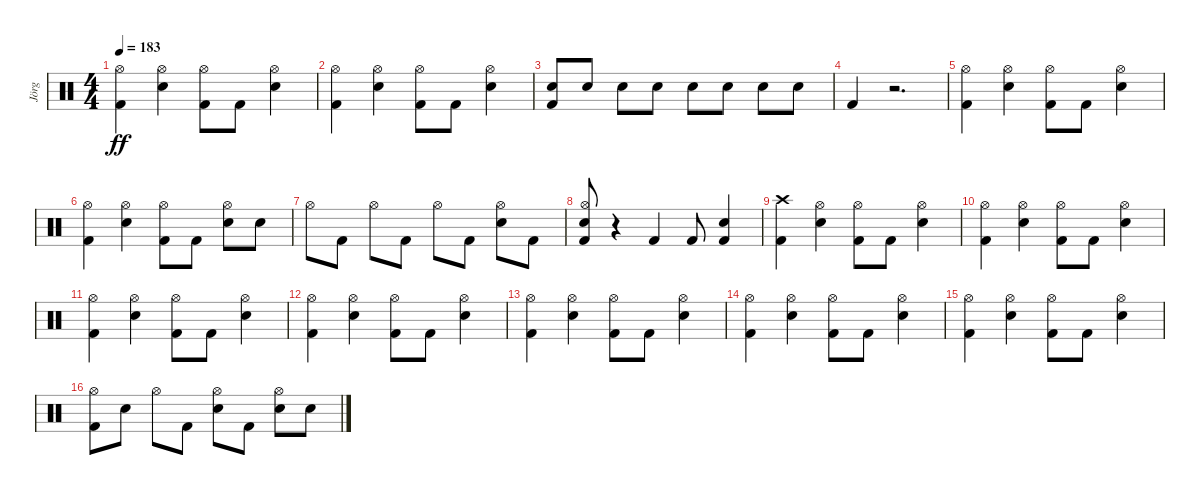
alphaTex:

\track ("Jörg" "Jörg") {instrument percussion}
\staff {score}
\articulation defaults
\ts (4 4)
\tempo 183
\clef neutral
\ks c
("Kick (hit) 2" "Hi-Hat (open)").4{dy ff} ("Snare (hit) 2" "Hi-Hat (open)").4 ("Kick (hit) 2" "Hi-Hat (open)").8 "Kick (hit) 2".8 ("Snare (hit) 2" "Hi-Hat (open)").4 |
("Kick (hit) 2" "Hi-Hat (open)").4 ("Snare (hit) 2" "Hi-Hat (open)").4 ("Kick (hit) 2" "Hi-Hat (open)").8 "Kick (hit) 2".8 ("Snare (hit) 2" "Hi-Hat (open)").4 |
("Snare (hit) 2" "Kick (hit) 2").8 "Snare (hit) 2".8 "Snare (hit) 2".8 "Snare (hit) 2".8 "Snare (hit) 2".8 "Snare (hit) 2".8 "Snare (hit) 2".8 "Snare (hit) 2".8 |
"Kick (hit) 2".4 r.2{d} |
("Hi-Hat (open)" "Kick (hit) 2").4 ("Hi-Hat (open)" "Snare (hit) 2").4 ("Hi-Hat (open)" "Kick (hit) 2").8 "Kick (hit) 2".8 ("Hi-Hat (open)" "Snare (hit) 2").4 |
("Hi-Hat (open)" "Kick (hit) 2").4 ("Hi-Hat (open)" "Snare (hit) 2").4 ("Hi-Hat (open)" "Kick (hit) 2").8 "Kick (hit) 2".8 ("Hi-Hat (open)" "Snare (hit) 2").8 "Snare (hit) 2".8 |
"Hi-Hat (open)".8 "Kick (hit) 2".8 "Hi-Hat (open)".8 "Kick (hit) 2".8 "Hi-Hat (open)".8 "Kick (hit) 2".8 ("Snare (hit) 2" "Hi-Hat (open)").8 "Kick (hit) 2".8 |
("Kick (hit) 2" "Snare (hit) 2" "Hi-Hat (open)").8 r.4 "Kick (hit) 2".4 "Kick (hit) 2".8 ("Kick (hit) 2" "Snare (hit) 2").4 |
("Kick (hit) 2" "Crash high (hit)").4 ("Snare (hit) 2" "Hi-Hat (open)").4 ("Kick (hit) 2" "Hi-Hat (open)").8 "Kick (hit) 2".8 ("Snare (hit) 2" "Hi-Hat (open)").4 |
("Kick (hit) 2" "Hi-Hat (open)").4 ("Snare (hit) 2" "Hi-Hat (open)").4 ("Kick (hit) 2" "Hi-Hat (open)").8 "Kick (hit) 2".8 ("Snare (hit) 2" "Hi-Hat (open)").4 |
("Kick (hit) 2" "Hi-Hat (open)").4 ("Snare (hit) 2" "Hi-Hat (open)").4 ("Kick (hit) 2" "Hi-Hat (open)").8 "Kick (hit) 2".8 ("Snare (hit) 2" "Hi-Hat (open)").4 |
("Kick (hit) 2" "Hi-Hat (open)").4 ("Snare (hit) 2" "Hi-Hat (open)").4 ("Kick (hit) 2" "Hi-Hat (open)").8 "Kick (hit) 2".8 ("Snare (hit) 2" "Hi-Hat (open)").4 |
("Kick (hit) 2" "Hi-Hat (open)").4 ("Snare (hit) 2" "Hi-Hat (open)").4 ("Kick (hit) 2" "Hi-Hat (open)").8 "Kick (hit) 2".8 ("Snare (hit) 2" "Hi-Hat (open)").4 |
("Kick (hit) 2" "Hi-Hat (open)").4 ("Snare (hit) 2" "Hi-Hat (open)").4 ("Kick (hit) 2" "Hi-Hat (open)").8 "Kick (hit) 2".8 ("Snare (hit) 2" "Hi-Hat (open)").4 |
("Kick (hit) 2" "Hi-Hat (open)").4 ("Snare (hit) 2" "Hi-Hat (open)").4 ("Kick (hit) 2" "Hi-Hat (open)").8 "Kick (hit) 2".8 ("Snare (hit) 2" "Hi-Hat (open)").4 |
("Hi-Hat (open)" "Kick (hit) 2").8 "Snare (hit) 2".8 "Hi-Hat (open)".8 "Kick (hit) 2".8 ("Snare (hit) 2" "Hi-Hat (open)").8 "Kick (hit) 2".8 ("Snare (hit) 2" "Hi-Hat (open)").8 "Snare (hit) 2".8
